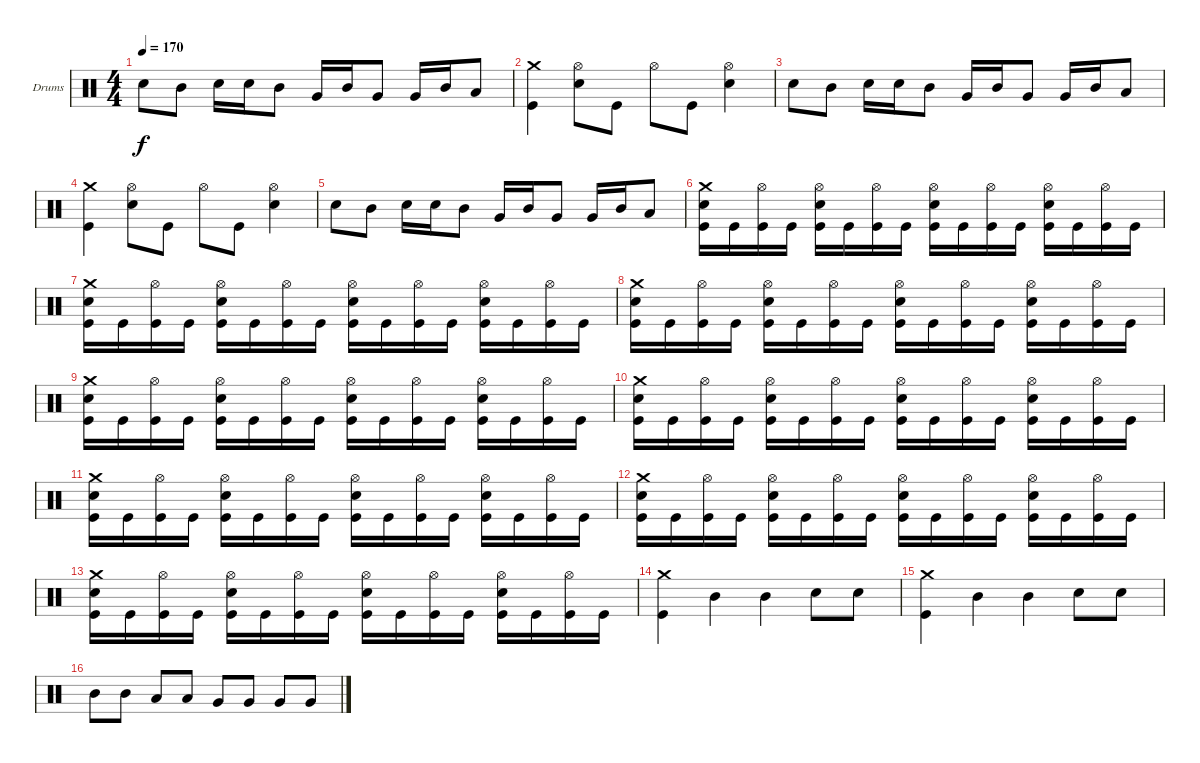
\bracketExtendMode groupsimilarinstruments
\firstSystemTrackNameOrientation horizontal
\otherSystemsTrackNameOrientation horizontal
\track ("Ударные" "Drums") {instrument percussion}
\staff {score}
\articulation defaults
\ts (4 4)
\tempo 170
\clef neutral
\ks c "Snare (hit) 2".8{dy f} "Mid Tom (hit)".8 "Snare (hit) 2".16 "Snare (hit) 2".16 "Mid Tom (hit)".8 "Very Low Tom (hit)".16 "Mid Tom (hit)".16 "Very Low Tom (hit)".8 "Very Low Tom (hit)".16 "Mid Tom (hit)".16 "Low Tom (hit)".8
|
("Crash medium (hit)" "Kick (hit)").4 ("Hi-Hat (open)" "Snare (hit) 2").8 "Kick (hit)".8 "Hi-Hat (open)".8 "Kick (hit)".8 ("Hi-Hat (open)" "Snare (hit) 2").4 |
"Snare (hit) 2".8 "Mid Tom (hit)".8 "Snare (hit) 2".16 "Snare (hit) 2".16 "Mid Tom (hit)".8 "Very Low Tom (hit)".16 "Mid Tom (hit)".16 "Very Low Tom (hit)".8 "Very Low Tom (hit)".16 "Mid Tom (hit)".16 "Low Tom (hit)".8 |
("Crash medium (hit)" "Kick (hit)").4 ("Hi-Hat (open)" "Snare (hit) 2").8 "Kick (hit)".8 "Hi-Hat (open)".8 "Kick (hit)".8 ("Hi-Hat (open)" "Snare (hit) 2").4 |
"Snare (hit) 2".8 "Mid Tom (hit)".8 "Snare (hit) 2".16 "Snare (hit) 2".16 "Mid Tom (hit)".8 "Very Low Tom (hit)".16 "Mid Tom (hit)".16 "Very Low Tom (hit)".8 "Very Low Tom (hit)".16 "Mid Tom (hit)".16 "Low Tom (hit)".8 |
("Crash medium (hit)" "Snare (hit) 2" "Kick (hit)").16 "Kick (hit)".16 ("Hi-Hat (open)" "Kick (hit)").16 "Kick (hit)".16 ("Hi-Hat (open)" "Snare (hit) 2" "Kick (hit)").16 "Kick (hit)".16 ("Hi-Hat (open)" "Kick (hit)").16 "Kick (hit)".16 ("Hi-Hat (open)" "Snare (hit) 2" "Kick (hit)").16 "Kick (hit)".16 ("Hi-Hat (open)" "Kick (hit)").16 "Kick (hit)".16 ("Hi-Hat (open)" "Snare (hit) 2" "Kick (hit)").16 "Kick (hit)".16 ("Hi-Hat (open)" "Kick (hit)").16 "Kick (hit)".16 |
("Crash medium (hit)" "Snare (hit) 2" "Kick (hit)").16 "Kick (hit)".16 ("Hi-Hat (open)" "Kick (hit)").16 "Kick (hit)".16 ("Hi-Hat (open)" "Snare (hit) 2" "Kick (hit)").16 "Kick (hit)".16 ("Hi-Hat (open)" "Kick (hit)").16 "Kick (hit)".16 ("Hi-Hat (open)" "Snare (hit) 2" "Kick (hit)").16 "Kick (hit)".16 ("Hi-Hat (open)" "Kick (hit)").16 "Kick (hit)".16 ("Hi-Hat (open)" "Snare (hit) 2" "Kick (hit)").16 "Kick (hit)".16 ("Hi-Hat (open)" "Kick (hit)").16 "Kick (hit)".16 |
("Crash medium (hit)" "Snare (hit) 2" "Kick (hit)").16 "Kick (hit)".16 ("Hi-Hat (open)" "Kick (hit)").16 "Kick (hit)".16 ("Hi-Hat (open)" "Snare (hit) 2" "Kick (hit)").16 "Kick (hit)".16 ("Hi-Hat (open)" "Kick (hit)").16 "Kick (hit)".16 ("Hi-Hat (open)" "Snare (hit) 2" "Kick (hit)").16 "Kick (hit)".16 ("Hi-Hat (open)" "Kick (hit)").16 "Kick (hit)".16 ("Hi-Hat (open)" "Snare (hit) 2" "Kick (hit)").16 "Kick (hit)".16 ("Hi-Hat (open)" "Kick (hit)").16 "Kick (hit)".16 |
("Crash medium (hit)" "Snare (hit) 2" "Kick (hit)").16 "Kick (hit)".16 ("Hi-Hat (open)" "Kick (hit)").16 "Kick (hit)".16 ("Hi-Hat (open)" "Snare (hit) 2" "Kick (hit)").16 "Kick (hit)".16 ("Hi-Hat (open)" "Kick (hit)").16 "Kick (hit)".16 ("Hi-Hat (open)" "Snare (hit) 2" "Kick (hit)").16 "Kick (hit)".16 ("Hi-Hat (open)" "Kick (hit)").16 "Kick (hit)".16 ("Hi-Hat (open)" "Snare (hit) 2" "Kick (hit)").16 "Kick (hit)".16 ("Hi-Hat (open)" "Kick (hit)").16 "Kick (hit)".16 |
("Crash medium (hit)" "Snare (hit) 2" "Kick (hit)").16 "Kick (hit)".16 ("Hi-Hat (open)" "Kick (hit)").16 "Kick (hit)".16 ("Hi-Hat (open)" "Snare (hit) 2" "Kick (hit)").16 "Kick (hit)".16 ("Hi-Hat (open)" "Kick (hit)").16 "Kick (hit)".16 ("Hi-Hat (open)" "Snare (hit) 2" "Kick (hit)").16 "Kick (hit)".16 ("Hi-Hat (open)" "Kick (hit)").16 "Kick (hit)".16 ("Hi-Hat (open)" "Snare (hit) 2" "Kick (hit)").16 "Kick (hit)".16 ("Hi-Hat (open)" "Kick (hit)").16 "Kick (hit)".16 |
("Crash medium (hit)" "Snare (hit) 2" "Kick (hit)").16 "Kick (hit)".16 ("Hi-Hat (open)" "Kick (hit)").16 "Kick (hit)".16 ("Hi-Hat (open)" "Snare (hit) 2" "Kick (hit)").16 "Kick (hit)".16 ("Hi-Hat (open)" "Kick (hit)").16 "Kick (hit)".16 ("Hi-Hat (open)" "Snare (hit) 2" "Kick (hit)").16 "Kick (hit)".16 ("Hi-Hat (open)" "Kick (hit)").16 "Kick (hit)".16 ("Hi-Hat (open)" "Snare (hit) 2" "Kick (hit)").16 "Kick (hit)".16 ("Hi-Hat (open)" "Kick (hit)").16 "Kick (hit)".16 |
("Crash medium (hit)" "Snare (hit) 2" "Kick (hit)").16 "Kick (hit)".16 ("Hi-Hat (open)" "Kick (hit)").16 "Kick (hit)".16 ("Hi-Hat (open)" "Snare (hit) 2" "Kick (hit)").16 "Kick (hit)".16 ("Hi-Hat (open)" "Kick (hit)").16 "Kick (hit)".16 ("Hi-Hat (open)" "Snare (hit) 2" "Kick (hit)").16 "Kick (hit)".16 ("Hi-Hat (open)" "Kick (hit)").16 "Kick (hit)".16 ("Hi-Hat (open)" "Snare (hit) 2" "Kick (hit)").16 "Kick (hit)".16 ("Hi-Hat (open)" "Kick (hit)").16 "Kick (hit)".16 |
("Crash medium (hit)" "Snare (hit) 2" "Kick (hit)").16 "Kick (hit)".16 ("Hi-Hat (open)" "Kick (hit)").16 "Kick (hit)".16 ("Hi-Hat (open)" "Snare (hit) 2" "Kick (hit)").16 "Kick (hit)".16 ("Hi-Hat (open)" "Kick (hit)").16 "Kick (hit)".16 ("Hi-Hat (open)" "Snare (hit) 2" "Kick (hit)").16 "Kick (hit)".16 ("Hi-Hat (open)" "Kick (hit)").16 "Kick (hit)".16 ("Hi-Hat (open)" "Snare (hit) 2" "Kick (hit)").16 "Kick (hit)".16 ("Hi-Hat (open)" "Kick (hit)").16 "Kick (hit)".16 |
("Crash medium (hit)" "Kick (hit)").4 "Mid Tom (hit)".4 "Mid Tom (hit)".4 "Snare (hit) 2".8 "Snare (hit) 2".8 |
("Crash medium (hit)" "Kick (hit)").4 "Mid Tom (hit)".4 "Mid Tom (hit)".4 "Snare (hit) 2".8 "Snare (hit) 2".8 |
"Mid Tom (hit)".8 "Mid Tom (hit)".8 "Low Tom (hit)".8 "Low Tom (hit)".8 "Very Low Tom (hit)".8 "Very Low Tom (hit)".8 "Very Low Tom (hit)".8 "Very Low Tom (hit)".8
